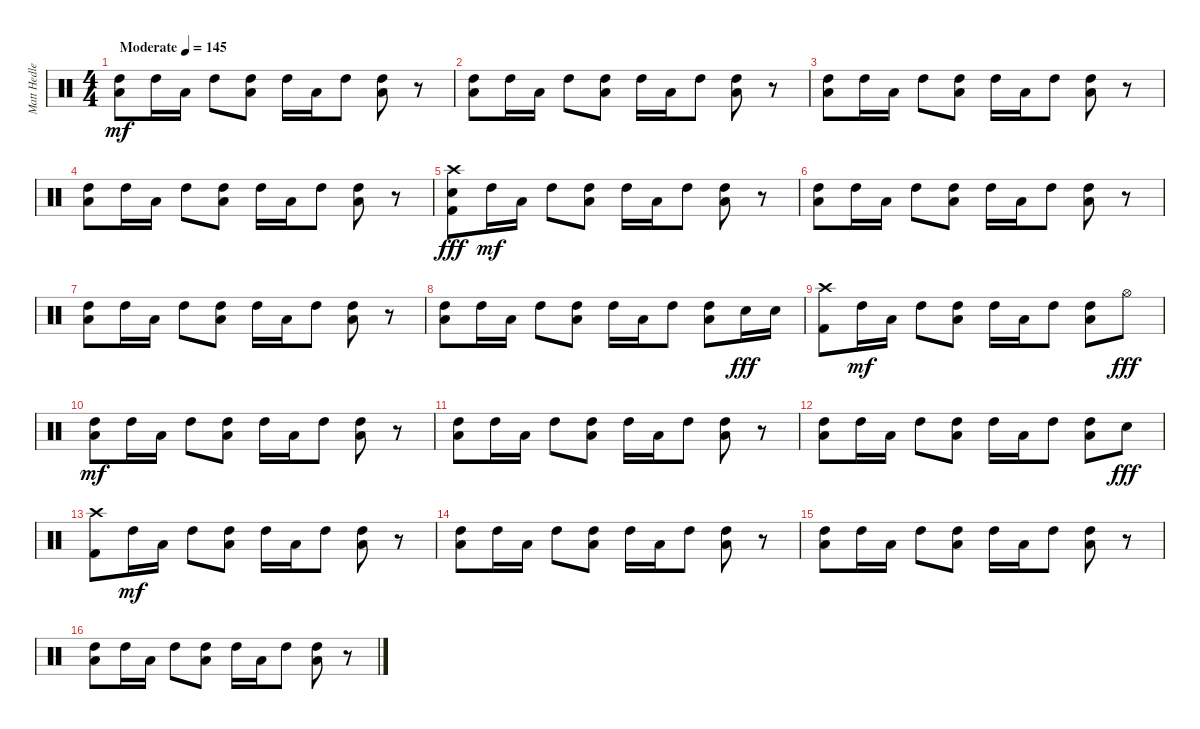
\track ("Matt Hedlers" "Matt Hedle") {instrument percussion}
\staff {score}
\articulation defaults
\ts (4 4)
\tempo (145 "Moderate")
\clef neutral
\ks c
("High Tom (hit)" "Low Tom (hit)").8{dy mf} "High Tom (hit)".16 "Low Tom (hit)".16 "High Tom (hit)".8 ("High Tom (hit)" "Low Tom (hit)").8 "High Tom (hit)".16 "Low Tom (hit)".16 "High Tom (hit)".8 ("High Tom (hit)" "Low Tom (hit)").8 r.8 |
("High Tom (hit)" "Low Tom (hit)").8 "High Tom (hit)".16 "Low Tom (hit)".16 "High Tom (hit)".8 ("High Tom (hit)" "Low Tom (hit)").8 "High Tom (hit)".16 "Low Tom (hit)".16 "High Tom (hit)".8 ("High Tom (hit)" "Low Tom (hit)").8 r.8 |
("High Tom (hit)" "Low Tom (hit)").8 "High Tom (hit)".16 "Low Tom (hit)".16 "High Tom (hit)".8 ("High Tom (hit)" "Low Tom (hit)").8 "High Tom (hit)".16 "Low Tom (hit)".16 "High Tom (hit)".8 ("High Tom (hit)" "Low Tom (hit)").8 r.8 |
("High Tom (hit)" "Low Tom (hit)").8 "High Tom (hit)".16 "Low Tom (hit)".16 "High Tom (hit)".8 ("High Tom (hit)" "Low Tom (hit)").8 "High Tom (hit)".16 "Low Tom (hit)".16 "High Tom (hit)".8 ("High Tom (hit)" "Low Tom (hit)").8 r.8 |
("Crash high (hit)" "Snare (hit) 2" "Kick (hit) 2").8{dy fff} "High Tom (hit)".16{dy mf} "Low Tom (hit)".16 "High Tom (hit)".8 ("High Tom (hit)" "Low Tom (hit)").8 "High Tom (hit)".16 "Low Tom (hit)".16 "High Tom (hit)".8 ("High Tom (hit)" "Low Tom (hit)").8 r.8 |
("High Tom (hit)" "Low Tom (hit)").8 "High Tom (hit)".16 "Low Tom (hit)".16 "High Tom (hit)".8 ("High Tom (hit)" "Low Tom (hit)").8 "High Tom (hit)".16 "Low Tom (hit)".16 "High Tom (hit)".8 ("High Tom (hit)" "Low Tom (hit)").8 r.8 |
("High Tom (hit)" "Low Tom (hit)").8 "High Tom (hit)".16 "Low Tom (hit)".16 "High Tom (hit)".8 ("High Tom (hit)" "Low Tom (hit)").8 "High Tom (hit)".16 "Low Tom (hit)".16 "High Tom (hit)".8 ("High Tom (hit)" "Low Tom (hit)").8 r.8 |
("High Tom (hit)" "Low Tom (hit)").8 "High Tom (hit)".16 "Low Tom (hit)".16 "High Tom (hit)".8 ("High Tom (hit)" "Low Tom (hit)").8 "High Tom (hit)".16 "Low Tom (hit)".16 "High Tom (hit)".8 ("High Tom (hit)" "Low Tom (hit)").8 "Snare (hit) 2".16{dy fff} "Snare (hit) 2".16 |
("Crash high (hit)" "Kick (hit) 2").8 "High Tom (hit)".16{dy mf} "Low Tom (hit)".16 "High Tom (hit)".8 ("High Tom (hit)" "Low Tom (hit)").8 "High Tom (hit)".16 "Low Tom (hit)".16 "High Tom (hit)".8 ("High Tom (hit)" "Low Tom (hit)").8 "Hi-Hat (open)".8{dy fff} |
("High Tom (hit)" "Low Tom (hit)").8{dy mf} "High Tom (hit)".16 "Low Tom (hit)".16 "High Tom (hit)".8 ("High Tom (hit)" "Low Tom (hit)").8 "High Tom (hit)".16 "Low Tom (hit)".16 "High Tom (hit)".8 ("High Tom (hit)" "Low Tom (hit)").8 r.8 |
("High Tom (hit)" "Low Tom (hit)").8 "High Tom (hit)".16 "Low Tom (hit)".16 "High Tom (hit)".8 ("High Tom (hit)" "Low Tom (hit)").8 "High Tom (hit)".16 "Low Tom (hit)".16 "High Tom (hit)".8 ("High Tom (hit)" "Low Tom (hit)").8 r.8 |
("High Tom (hit)" "Low Tom (hit)").8 "High Tom (hit)".16 "Low Tom (hit)".16 "High Tom (hit)".8 ("High Tom (hit)" "Low Tom (hit)").8 "High Tom (hit)".16 "Low Tom (hit)".16 "High Tom (hit)".8 ("High Tom (hit)" "Low Tom (hit)").8 "Snare (hit) 2".8{dy fff} |
("Crash high (hit)" "Kick (hit) 2").8 "High Tom (hit)".16{dy mf} "Low Tom (hit)".16 "High Tom (hit)".8 ("High Tom (hit)" "Low Tom (hit)").8 "High Tom (hit)".16 "Low Tom (hit)".16 "High Tom (hit)".8 ("High Tom (hit)" "Low Tom (hit)").8 r.8 |
("High Tom (hit)" "Low Tom (hit)").8 "High Tom (hit)".16 "Low Tom (hit)".16 "High Tom (hit)".8 ("High Tom (hit)" "Low Tom (hit)").8 "High Tom (hit)".16 "Low Tom (hit)".16 "High Tom (hit)".8 ("High Tom (hit)" "Low Tom (hit)").8 r.8 |
("High Tom (hit)" "Low Tom (hit)").8 "High Tom (hit)".16 "Low Tom (hit)".16 "High Tom (hit)".8 ("High Tom (hit)" "Low Tom (hit)").8 "High Tom (hit)".16 "Low Tom (hit)".16 "High Tom (hit)".8 ("High Tom (hit)" "Low Tom (hit)").8 r.8 |
("High Tom (hit)" "Low Tom (hit)").8 "High Tom (hit)".16 "Low Tom (hit)".16 "High Tom (hit)".8 ("High Tom (hit)" "Low Tom (hit)").8 "High Tom (hit)".16 "Low Tom (hit)".16 "High Tom (hit)".8 ("High Tom (hit)" "Low Tom (hit)").8 r.8
